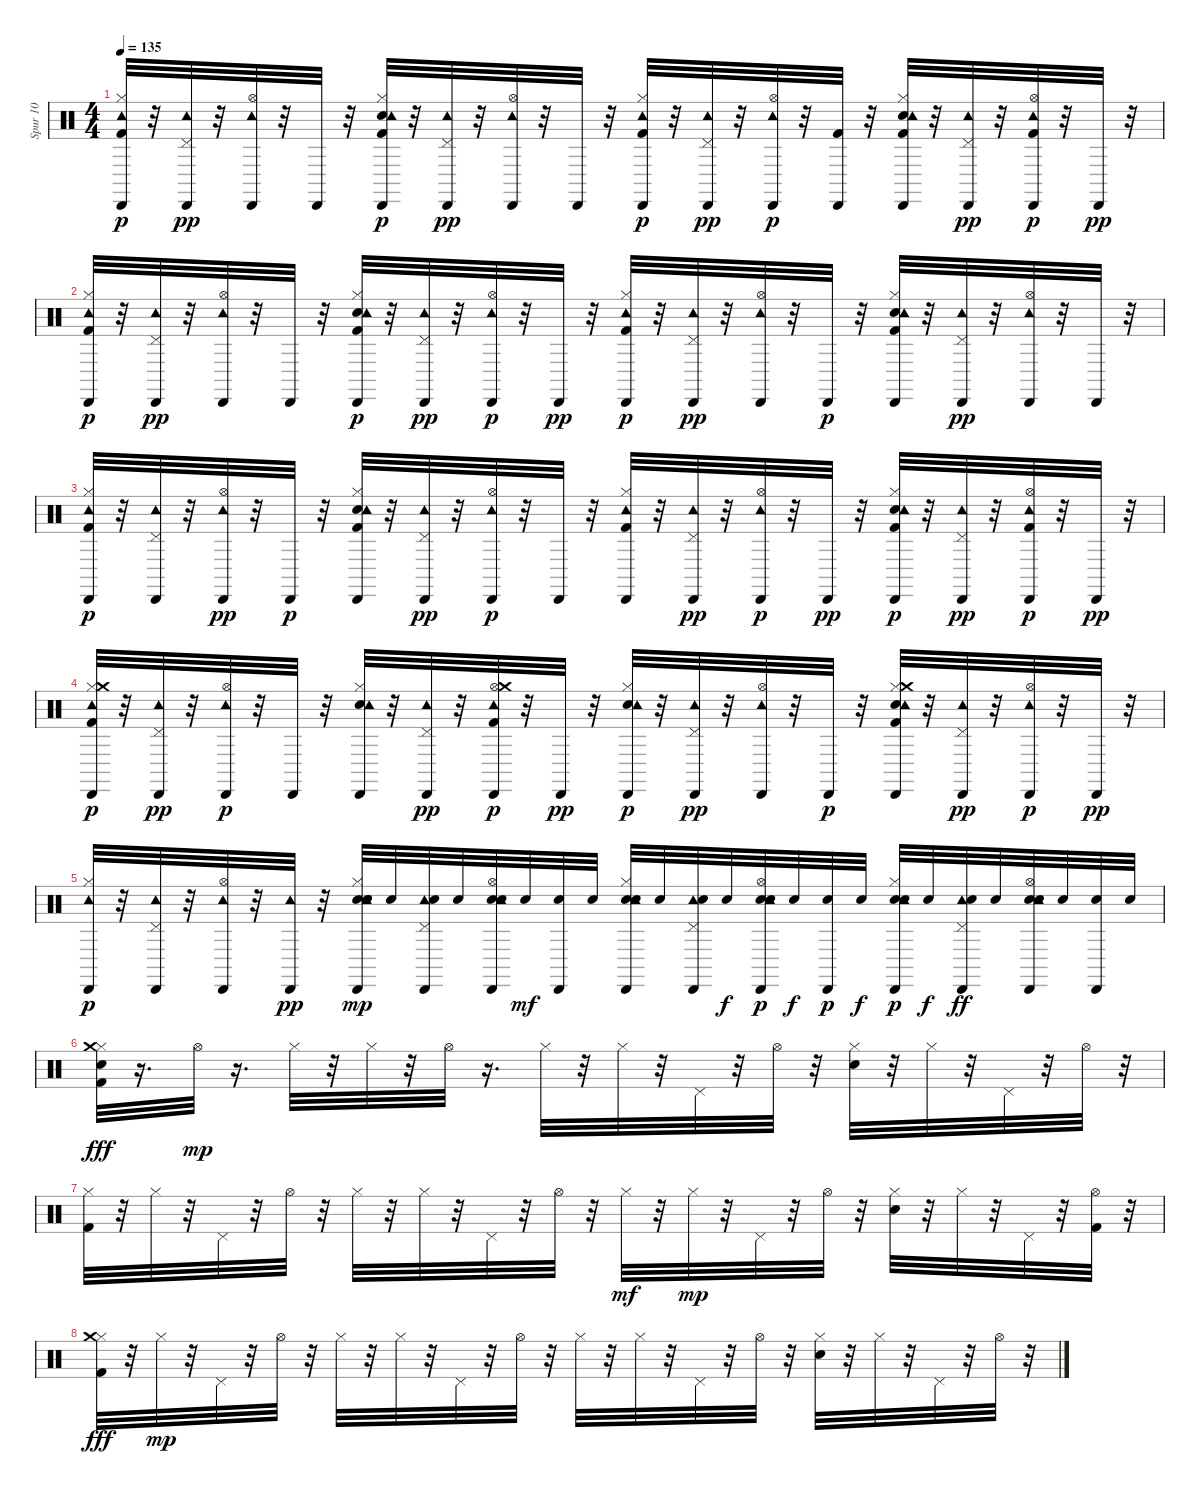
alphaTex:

\track ("Spur 10" "Spur 10") {instrument percussion}
\staff {score}
\articulation defaults
\ts (4 4)
\tempo 135
\clef neutral
\ks c
("Kick (hit) 2" "Hi-Hat (closed)" "Tambourine (hit)" "Cabasa (hit)").32{dy p} r.32 ("Pedal Hi-Hat (hit)" "Tambourine (hit)" "Cabasa (hit)").32{dy pp} r.32 ("Hi-Hat (open)" "Tambourine (hit)" "Cabasa (hit)").32 r.32 "Cabasa (hit)".32 r.32 ("Kick (hit) 2" "Snare (hit) 2" "Hi-Hat (closed)" "Tambourine (hit)" "Cabasa (hit)").32{dy p} r.32 ("Pedal Hi-Hat (hit)" "Tambourine (hit)" "Cabasa (hit)").32{dy pp} r.32 ("Hi-Hat (open)" "Tambourine (hit)" "Cabasa (hit)").32 r.32 "Cabasa (hit)".32 r.32 ("Kick (hit) 2" "Hi-Hat (closed)" "Tambourine (hit)" "Cabasa (hit)").32{dy p} r.32 ("Pedal Hi-Hat (hit)" "Tambourine (hit)" "Cabasa (hit)").32{dy pp} r.32 ("Hi-Hat (open)" "Tambourine (hit)" "Cabasa (hit)").32{dy p} r.32 ("Kick (hit) 2" "Cabasa (hit)").32 r.32 ("Kick (hit) 2" "Snare (hit) 2" "Hi-Hat (closed)" "Tambourine (hit)" "Cabasa (hit)").32 r.32 ("Pedal Hi-Hat (hit)" "Tambourine (hit)" "Cabasa (hit)").32{dy pp} r.32 ("Kick (hit) 2" "Hi-Hat (open)" "Tambourine (hit)" "Cabasa (hit)").32{dy p} r.32 "Cabasa (hit)".32{dy pp} r.32 |
("Kick (hit) 2" "Hi-Hat (closed)" "Tambourine (hit)" "Cabasa (hit)").32{dy p} r.32 ("Pedal Hi-Hat (hit)" "Tambourine (hit)" "Cabasa (hit)").32{dy pp} r.32 ("Hi-Hat (open)" "Tambourine (hit)" "Cabasa (hit)").32 r.32 "Cabasa (hit)".32 r.32 ("Kick (hit) 2" "Snare (hit) 2" "Hi-Hat (closed)" "Tambourine (hit)" "Cabasa (hit)").32{dy p} r.32 ("Pedal Hi-Hat (hit)" "Tambourine (hit)" "Cabasa (hit)").32{dy pp} r.32 ("Hi-Hat (open)" "Tambourine (hit)" "Cabasa (hit)").32{dy p} r.32 "Cabasa (hit)".32{dy pp} r.32 ("Kick (hit) 2" "Hi-Hat (closed)" "Tambourine (hit)" "Cabasa (hit)").32{dy p} r.32 ("Pedal Hi-Hat (hit)" "Tambourine (hit)" "Cabasa (hit)").32{dy pp} r.32 ("Hi-Hat (open)" "Tambourine (hit)" "Cabasa (hit)").32 r.32 "Cabasa (hit)".32{dy p} r.32 ("Kick (hit) 2" "Snare (hit) 2" "Hi-Hat (closed)" "Tambourine (hit)" "Cabasa (hit)").32 r.32 ("Pedal Hi-Hat (hit)" "Tambourine (hit)" "Cabasa (hit)").32{dy pp} r.32 ("Hi-Hat (open)" "Tambourine (hit)" "Cabasa (hit)").32 r.32 "Cabasa (hit)".32 r.32 |
("Kick (hit) 2" "Hi-Hat (closed)" "Tambourine (hit)" "Cabasa (hit)").32{dy p} r.32 ("Pedal Hi-Hat (hit)" "Tambourine (hit)" "Cabasa (hit)").32 r.32 ("Hi-Hat (open)" "Tambourine (hit)" "Cabasa (hit)").32{dy pp} r.32 "Cabasa (hit)".32{dy p} r.32 ("Kick (hit) 2" "Snare (hit) 2" "Hi-Hat (closed)" "Tambourine (hit)" "Cabasa (hit)").32 r.32 ("Pedal Hi-Hat (hit)" "Tambourine (hit)" "Cabasa (hit)").32{dy pp} r.32 ("Hi-Hat (open)" "Tambourine (hit)" "Cabasa (hit)").32{dy p} r.32 "Cabasa (hit)".32 r.32 ("Kick (hit) 2" "Hi-Hat (closed)" "Tambourine (hit)" "Cabasa (hit)").32 r.32 ("Pedal Hi-Hat (hit)" "Tambourine (hit)" "Cabasa (hit)").32{dy pp} r.32 ("Hi-Hat (open)" "Tambourine (hit)" "Cabasa (hit)").32{dy p} r.32 "Cabasa (hit)".32{dy pp} r.32 ("Kick (hit) 2" "Snare (hit) 2" "Hi-Hat (closed)" "Tambourine (hit)" "Cabasa (hit)").32{dy p} r.32 ("Pedal Hi-Hat (hit)" "Tambourine (hit)" "Cabasa (hit)").32{dy pp} r.32 ("Kick (hit) 2" "Hi-Hat (open)" "Tambourine (hit)" "Cabasa (hit)").32{dy p} r.32 "Cabasa (hit)".32{dy pp} r.32 |
("Kick (hit) 2" "Hi-Hat (closed)" "Tambourine (hit)" "Crash medium (hit)" "Cabasa (hit)").32{dy p} r.32 ("Pedal Hi-Hat (hit)" "Tambourine (hit)" "Cabasa (hit)").32{dy pp} r.32 ("Hi-Hat (open)" "Tambourine (hit)" "Cabasa (hit)").32{dy p} r.32 "Cabasa (hit)".32 r.32 ("Snare (hit) 2" "Hi-Hat (closed)" "Tambourine (hit)" "Cabasa (hit)").32 r.32 ("Pedal Hi-Hat (hit)" "Tambourine (hit)" "Cabasa (hit)").32{dy pp} r.32 ("Kick (hit) 2" "Hi-Hat (open)" "Tambourine (hit)" "Crash medium (hit)" "Cabasa (hit)").32{dy p} r.32 "Cabasa (hit)".32{dy pp} r.32 ("Snare (hit) 2" "Hi-Hat (closed)" "Tambourine (hit)" "Cabasa (hit)").32{dy p} r.32 ("Pedal Hi-Hat (hit)" "Tambourine (hit)" "Cabasa (hit)").32{dy pp} r.32 ("Hi-Hat (open)" "Tambourine (hit)" "Cabasa (hit)").32 r.32 "Cabasa (hit)".32{dy p} r.32 ("Kick (hit) 2" "Snare (hit) 2" "Hi-Hat (closed)" "Tambourine (hit)" "Crash medium (hit)" "Cabasa (hit)").32 r.32 ("Pedal Hi-Hat (hit)" "Tambourine (hit)" "Cabasa (hit)").32{dy pp} r.32 ("Hi-Hat (open)" "Tambourine (hit)" "Cabasa (hit)").32{dy p} r.32 "Cabasa (hit)".32{dy pp} r.32 |
("Hi-Hat (closed)" "Tambourine (hit)" "Cabasa (hit)").32{dy p} r.32 ("Pedal Hi-Hat (hit)" "Tambourine (hit)" "Cabasa (hit)").32 r.32 ("Hi-Hat (open)" "Tambourine (hit)" "Cabasa (hit)").32 r.32 ("Tambourine (hit)" "Cabasa (hit)").32{dy pp} r.32 ("Snare (hit) 2" "Snare (hit) 2" "Hi-Hat (closed)" "Tambourine (hit)" "Cabasa (hit)" "Snare (hit) 2").32{dy mp} "Snare (hit) 2".32 ("Pedal Hi-Hat (hit)" "Tambourine (hit)" "Cabasa (hit)" "Snare (hit) 2").32 "Snare (hit) 2".32 ("Snare (hit) 2" "Hi-Hat (open)" "Tambourine (hit)" "Cabasa (hit)" "Snare (hit) 2").32 "Snare (hit) 2".32{dy mf} ("Cabasa (hit)" "Snare (hit) 2").32 "Snare (hit) 2".32 ("Snare (hit) 2" "Hi-Hat (closed)" "Tambourine (hit)" "Cabasa (hit)" "Snare (hit) 2").32 "Snare (hit) 2".32 ("Pedal Hi-Hat (hit)" "Tambourine (hit)" "Cabasa (hit)" "Snare (hit) 2").32 "Snare (hit) 2".32{dy f} ("Snare (hit) 2" "Hi-Hat (open)" "Tambourine (hit)" "Cabasa (hit)" "Snare (hit) 2").32{dy p} "Snare (hit) 2".32{dy f} ("Cabasa (hit)" "Snare (hit) 2").32{dy p} "Snare (hit) 2".32{dy f} ("Snare (hit) 2" "Hi-Hat (closed)" "Tambourine (hit)" "Cabasa (hit)" "Snare (hit) 2").32{dy p} "Snare (hit) 2".32{dy f} ("Pedal Hi-Hat (hit)" "Tambourine (hit)" "Cabasa (hit)" "Snare (hit) 2").32{dy ff} "Snare (hit) 2".32 ("Snare (hit) 2" "Hi-Hat (open)" "Tambourine (hit)" "Cabasa (hit)" "Snare (hit) 2").32 "Snare (hit) 2".32 ("Cabasa (hit)" "Snare (hit) 2").32 "Snare (hit) 2".32 |
("Snare (hit) 2" "Kick (hit) 2" "Hi-Hat (closed)" "Crash medium (hit)").32{dy fff} r.16{d} "Hi-Hat (open)".32{dy mp} r.16{d} "Hi-Hat (closed)".32 r.32 "Hi-Hat (closed)".32 r.32 "Hi-Hat (open)".32 r.16{d} "Hi-Hat (closed)".32 r.32 "Hi-Hat (closed)".32 r.32 "Pedal Hi-Hat (hit)".32 r.32 "Hi-Hat (open)".32 r.32 ("Hand Clap (hit)" "Hi-Hat (closed)").32 r.32 "Hi-Hat (closed)".32 r.32 "Pedal Hi-Hat (hit)".32 r.32 "Hi-Hat (open)".32 r.32 |
("Kick (hit) 2" "Hi-Hat (closed)").32 r.32 "Hi-Hat (closed)".32 r.32 "Pedal Hi-Hat (hit)".32 r.32 "Hi-Hat (open)".32 r.32 "Hi-Hat (closed)".32 r.32 "Hi-Hat (closed)".32 r.32 "Pedal Hi-Hat (hit)".32 r.32 "Hi-Hat (open)".32 r.32 "Hi-Hat (closed)".32{dy mf} r.32 "Hi-Hat (closed)".32{dy mp} r.32 "Pedal Hi-Hat (hit)".32 r.32 "Hi-Hat (open)".32 r.32 ("Hand Clap (hit)" "Hi-Hat (closed)").32 r.32 "Hi-Hat (closed)".32 r.32 "Pedal Hi-Hat (hit)".32 r.32 ("Kick (hit) 2" "Hi-Hat (open)").32 r.32 |
("Kick (hit) 2" "Hi-Hat (closed)" "Crash medium (hit)").32{dy fff} r.32 "Hi-Hat (closed)".32{dy mp} r.32 "Pedal Hi-Hat (hit)".32 r.32 "Hi-Hat (open)".32 r.32 "Hi-Hat (closed)".32 r.32 "Hi-Hat (closed)".32 r.32 "Pedal Hi-Hat (hit)".32 r.32 "Hi-Hat (open)".32 r.32 "Hi-Hat (closed)".32 r.32 "Hi-Hat (closed)".32 r.32 "Pedal Hi-Hat (hit)".32 r.32 "Hi-Hat (open)".32 r.32 ("Hand Clap (hit)" "Hi-Hat (closed)").32 r.32 "Hi-Hat (closed)".32 r.32 "Pedal Hi-Hat (hit)".32 r.32 "Hi-Hat (open)".32 r.32
